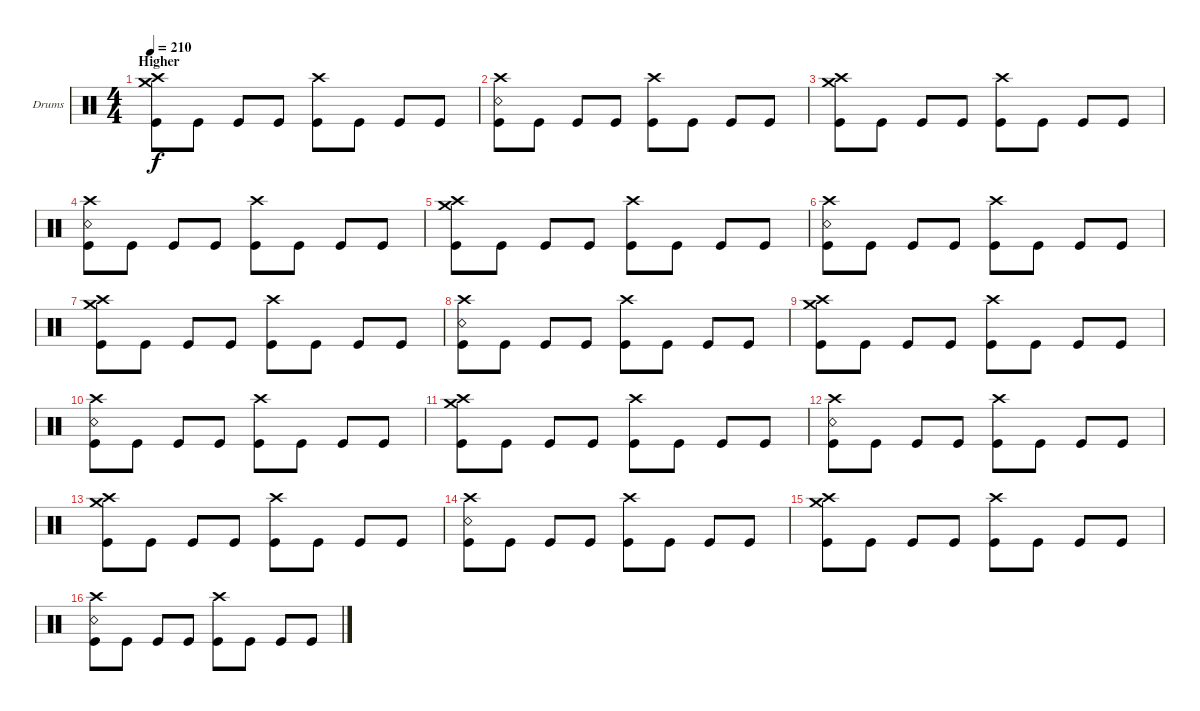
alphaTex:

\defaultSystemsLayout 4
\bracketExtendMode groupsimilarinstruments
\firstSystemTrackNameOrientation horizontal
\otherSystemsTrackNameOrientation horizontal
\track ("Drums" "Drums") {instrument percussion}
\staff {score}
\articulation defaults
\ts (4 4)
\section ("" "Higher")
\tempo 210
\clef neutral
\ks c
("Crash high (hit)" "Kick (hit)" "Crash medium (hit)").8{dy f} "Kick (hit)".8 "Kick (hit)".8 "Kick (hit)".8 ("Kick (hit)" "Crash high (hit)").8 "Kick (hit)".8 "Kick (hit)".8 "Kick (hit)".8 |
("Crash high (hit)" "Kick (hit)" "Snare (rim shot)").8 "Kick (hit)".8 "Kick (hit)".8 "Kick (hit)".8 ("Kick (hit)" "Crash high (hit)").8 "Kick (hit)".8 "Kick (hit)".8 "Kick (hit)".8 |
("Crash high (hit)" "Kick (hit)" "Crash medium (hit)").8 "Kick (hit)".8 "Kick (hit)".8 "Kick (hit)".8 ("Kick (hit)" "Crash high (hit)").8 "Kick (hit)".8 "Kick (hit)".8 "Kick (hit)".8 |
("Crash high (hit)" "Kick (hit)" "Snare (rim shot)").8 "Kick (hit)".8 "Kick (hit)".8 "Kick (hit)".8 ("Kick (hit)" "Crash high (hit)").8 "Kick (hit)".8 "Kick (hit)".8 "Kick (hit)".8 |
("Crash high (hit)" "Kick (hit)" "Crash medium (hit)").8 "Kick (hit)".8 "Kick (hit)".8 "Kick (hit)".8 ("Kick (hit)" "Crash high (hit)").8 "Kick (hit)".8 "Kick (hit)".8 "Kick (hit)".8 |
("Crash high (hit)" "Kick (hit)" "Snare (rim shot)").8 "Kick (hit)".8 "Kick (hit)".8 "Kick (hit)".8 ("Kick (hit)" "Crash high (hit)").8 "Kick (hit)".8 "Kick (hit)".8 "Kick (hit)".8 |
("Crash high (hit)" "Kick (hit)" "Crash medium (hit)").8 "Kick (hit)".8 "Kick (hit)".8 "Kick (hit)".8 ("Kick (hit)" "Crash high (hit)").8 "Kick (hit)".8 "Kick (hit)".8 "Kick (hit)".8 |
("Crash high (hit)" "Kick (hit)" "Snare (rim shot)").8 "Kick (hit)".8 "Kick (hit)".8 "Kick (hit)".8 ("Kick (hit)" "Crash high (hit)").8 "Kick (hit)".8 "Kick (hit)".8 "Kick (hit)".8 |
("Crash high (hit)" "Kick (hit)" "Crash medium (hit)").8 "Kick (hit)".8 "Kick (hit)".8 "Kick (hit)".8 ("Kick (hit)" "Crash high (hit)").8 "Kick (hit)".8 "Kick (hit)".8 "Kick (hit)".8 |
("Crash high (hit)" "Kick (hit)" "Snare (rim shot)").8 "Kick (hit)".8 "Kick (hit)".8 "Kick (hit)".8 ("Kick (hit)" "Crash high (hit)").8 "Kick (hit)".8 "Kick (hit)".8 "Kick (hit)".8 |
("Crash high (hit)" "Kick (hit)" "Crash medium (hit)").8 "Kick (hit)".8 "Kick (hit)".8 "Kick (hit)".8 ("Kick (hit)" "Crash high (hit)").8 "Kick (hit)".8 "Kick (hit)".8 "Kick (hit)".8 |
("Crash high (hit)" "Kick (hit)" "Snare (rim shot)").8 "Kick (hit)".8 "Kick (hit)".8 "Kick (hit)".8 ("Kick (hit)" "Crash high (hit)").8 "Kick (hit)".8 "Kick (hit)".8 "Kick (hit)".8 |
("Crash high (hit)" "Kick (hit)" "Crash medium (hit)").8 "Kick (hit)".8 "Kick (hit)".8 "Kick (hit)".8 ("Kick (hit)" "Crash high (hit)").8 "Kick (hit)".8 "Kick (hit)".8 "Kick (hit)".8 |
("Crash high (hit)" "Kick (hit)" "Snare (rim shot)").8 "Kick (hit)".8 "Kick (hit)".8 "Kick (hit)".8 ("Kick (hit)" "Crash high (hit)").8 "Kick (hit)".8 "Kick (hit)".8 "Kick (hit)".8 |
("Crash high (hit)" "Kick (hit)" "Crash medium (hit)").8 "Kick (hit)".8 "Kick (hit)".8 "Kick (hit)".8 ("Kick (hit)" "Crash high (hit)").8 "Kick (hit)".8 "Kick (hit)".8 "Kick (hit)".8 |
("Crash high (hit)" "Kick (hit)" "Snare (rim shot)").8 "Kick (hit)".8 "Kick (hit)".8 "Kick (hit)".8 ("Kick (hit)" "Crash high (hit)").8 "Kick (hit)".8 "Kick (hit)".8 "Kick (hit)".8
